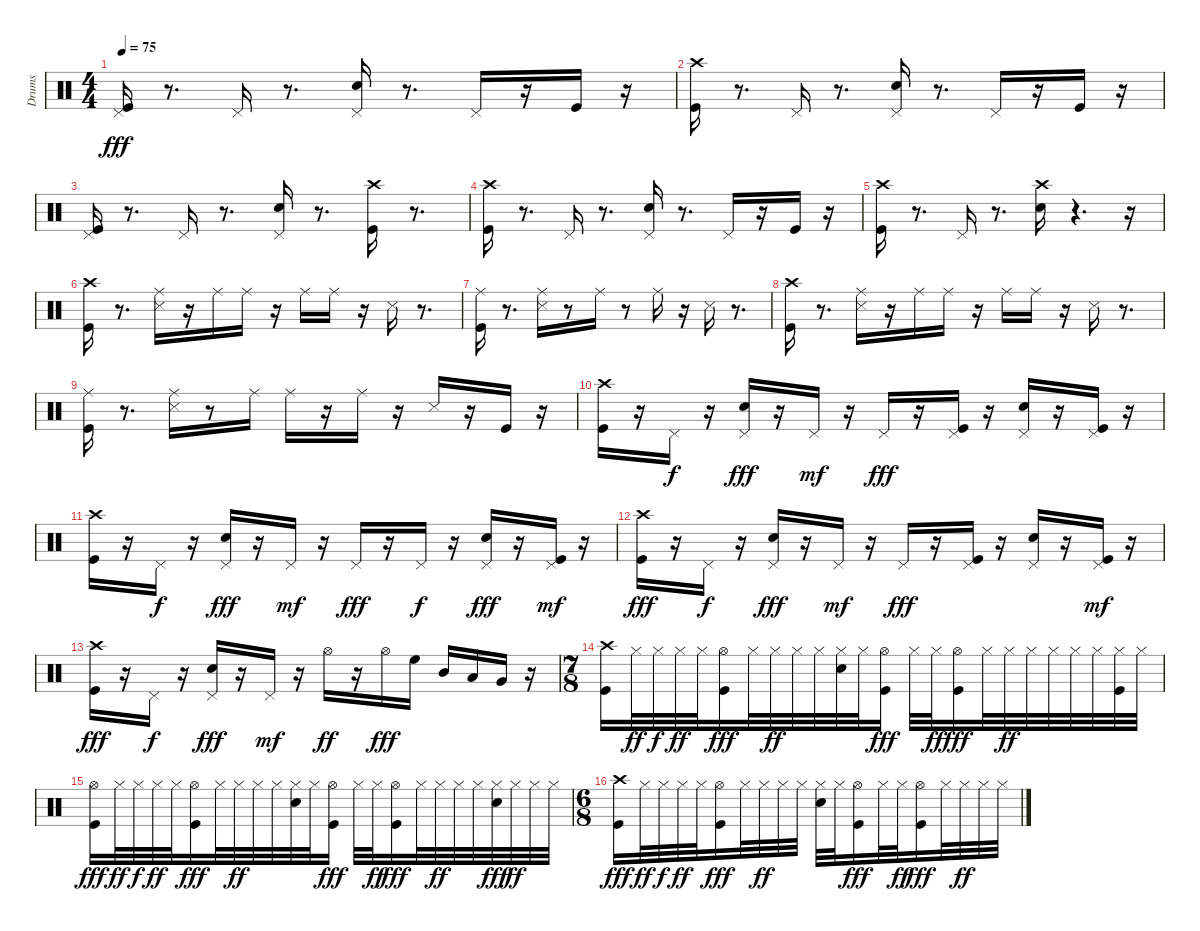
\track ("Drums" "Drums") {instrument percussion}
\staff {score}
\articulation defaults
\ts (4 4)
\tempo 75
\clef neutral
\ks c
("Kick (hit)" "Pedal Hi-Hat (hit)").16{dy fff} r.8{d} "Pedal Hi-Hat (hit)".16 r.8{d} ("Snare (hit) 2" "Pedal Hi-Hat (hit)").16 r.8{d} "Pedal Hi-Hat (hit)".16 r.16 "Kick (hit)".16 r.16 |
("Kick (hit)" "Crash high (hit)").16 r.8{d} "Pedal Hi-Hat (hit)".16 r.8{d} ("Pedal Hi-Hat (hit)" "Snare (hit) 2").16 r.8{d} "Pedal Hi-Hat (hit)".16 r.16 "Kick (hit)".16 r.16 |
("Kick (hit)" "Pedal Hi-Hat (hit)").16 r.8{d} "Pedal Hi-Hat (hit)".16 r.8{d} ("Snare (hit) 2" "Pedal Hi-Hat (hit)").16 r.8{d} ("Crash high (hit)" "Kick (hit)").16 r.8{d} |
("Crash high (hit)" "Kick (hit)").16 r.8{d} "Pedal Hi-Hat (hit)".16 r.8{d} ("Pedal Hi-Hat (hit)" "Snare (hit) 2").16 r.8{d} "Pedal Hi-Hat (hit)".16 r.16 "Kick (hit)".16 r.16 |
("Crash high (hit)" "Kick (hit)").16 r.8{d} "Pedal Hi-Hat (hit)".16 r.8{d} ("Crash high (hit)" "Snare (hit) 2").16 r.4{d} r.16 |
("Crash high (hit)" "Kick (hit)").16 r.8{d} ("Snare (side stick) 3" "Ride (middle)").16 r.16 "Ride (middle)".16 "Ride (middle)".16 r.16 "Ride (middle)".16 "Ride (middle)".16 r.16 "Snare (side stick) 3".16 r.8{d} |
("Ride (middle)" "Kick (hit)").16 r.8{d} ("Ride (middle)" "Snare (side stick) 3").16 r.8 "Ride (middle)".16 r.8 "Ride (middle)".16 r.16 "Snare (side stick) 3".16 r.8{d} |
("Kick (hit)" "Crash high (hit)").16 r.8{d} ("Ride (middle)" "Snare (side stick) 3").16 r.16 "Ride (middle)".16 "Ride (middle)".16 r.16 "Ride (middle)".16 "Ride (middle)".16 r.16 "Snare (side stick) 3".16 r.8{d} |
("Kick (hit)" "Ride (middle)").16 r.8{d} ("Snare (side stick) 3" "Ride (middle)").16 r.8 "Ride (middle)".16 "Ride (middle)".16 r.16 "Ride (middle)".16 r.16 "Snare (side stick) 3".16 r.16 "Kick (hit)".16 r.16 |
("Crash high (hit)" "Kick (hit)").16 r.16 "Pedal Hi-Hat (hit)".16{dy f} r.16 ("Pedal Hi-Hat (hit)" "Snare (hit) 2").16{dy fff} r.16 "Pedal Hi-Hat (hit)".16{dy mf} r.16 "Pedal Hi-Hat (hit)".16{dy fff} r.16 ("Pedal Hi-Hat (hit)" "Kick (hit)").16 r.16 ("Pedal Hi-Hat (hit)" "Snare (hit) 2").16 r.16 ("Pedal Hi-Hat (hit)" "Kick (hit)").16 r.16 |
("Crash high (hit)" "Kick (hit)").16 r.16 "Pedal Hi-Hat (hit)".16{dy f} r.16 ("Snare (hit) 2" "Pedal Hi-Hat (hit)").16{dy fff} r.16 "Pedal Hi-Hat (hit)".16{dy mf} r.16 "Pedal Hi-Hat (hit)".16{dy fff} r.16 "Pedal Hi-Hat (hit)".16{dy f} r.16 ("Snare (hit) 2" "Pedal Hi-Hat (hit)").16{dy fff} r.16 ("Kick (hit)" "Pedal Hi-Hat (hit)").16{dy mf} r.16 |
("Kick (hit)" "Crash high (hit)").16{dy fff} r.16 "Pedal Hi-Hat (hit)".16{dy f} r.16 ("Snare (hit) 2" "Pedal Hi-Hat (hit)").16{dy fff} r.16 "Pedal Hi-Hat (hit)".16{dy mf} r.16 "Pedal Hi-Hat (hit)".16{dy fff} r.16 ("Kick (hit)" "Pedal Hi-Hat (hit)").16 r.16 ("Snare (hit) 2" "Pedal Hi-Hat (hit)").16 r.16 ("Kick (hit)" "Pedal Hi-Hat (hit)").16{dy mf} r.16 |
("Kick (hit)" "Crash high (hit)").16{dy fff} r.16 "Pedal Hi-Hat (hit)".16{dy f} r.16 ("Pedal Hi-Hat (hit)" "Snare (hit) 2").16{dy fff} r.16 "Pedal Hi-Hat (hit)".16{dy mf} r.16 "Hi-Hat (open)".16{dy ff} r.16 "Hi-Hat (open)".16{dy fff} "High Floor Tom (hit)".16 "Mid Tom (hit)".16 "Low Tom (hit)".16 "Very Low Tom (hit)".16 r.16 |
\ts (7 8)
("Kick (hit)" "Crash high (hit)").16 "Hi-Hat (closed)".32{dy ff} "Hi-Hat (closed)".32{dy f} "Hi-Hat (closed)".32{dy ff} "Hi-Hat (closed)".32 ("Kick (hit)" "Hi-Hat (open)").16{dy fff} "Hi-Hat (closed)".32 "Hi-Hat (closed)".32{dy ff} "Hi-Hat (closed)".32 "Hi-Hat (closed)".32 ("Snare (hit) 2" "Hi-Hat (closed)").32 "Hi-Hat (closed)".32 ("Kick (hit)" "Hi-Hat (open)").16{dy fff} "Hi-Hat (closed)".32 "Hi-Hat (closed)".32{dy ff} ("Kick (hit)" "Hi-Hat (open)").16{dy fff} "Hi-Hat (closed)".32 "Hi-Hat (closed)".32{dy ff} "Hi-Hat (closed)".32 "Hi-Hat (closed)".32 "Hi-Hat (closed)".32 "Hi-Hat (closed)".32 ("Kick (hit)" "Hi-Hat (closed)").32 "Hi-Hat (closed)".32 |
("Kick (hit)" "Hi-Hat (open)").16{dy fff} "Hi-Hat (closed)".32{dy ff} "Hi-Hat (closed)".32{dy f} "Hi-Hat (closed)".32{dy ff} "Hi-Hat (closed)".32 ("Kick (hit)" "Hi-Hat (open)").16{dy fff} "Hi-Hat (closed)".32 "Hi-Hat (closed)".32{dy ff} "Hi-Hat (closed)".32 "Hi-Hat (closed)".32 ("Snare (hit) 2" "Hi-Hat (closed)").32 "Hi-Hat (closed)".32 ("Kick (hit)" "Hi-Hat (open)").16{dy fff} "Hi-Hat (closed)".32 "Hi-Hat (closed)".32{dy ff} ("Kick (hit)" "Hi-Hat (open)").16{dy fff} "Hi-Hat (closed)".32 "Hi-Hat (closed)".32{dy ff} "Hi-Hat (closed)".32 "Hi-Hat (closed)".32 ("Hi-Hat (closed)" "Snare (hit) 2").32{dy fff} "Hi-Hat (closed)".32{dy ff} "Hi-Hat (closed)".32 "Hi-Hat (closed)".32 |
\ts (6 8)
("Kick (hit)" "Crash high (hit)").16{dy fff} "Hi-Hat (closed)".32{dy ff} "Hi-Hat (closed)".32{dy f} "Hi-Hat (closed)".32{dy ff} "Hi-Hat (closed)".32 ("Kick (hit)" "Hi-Hat (open)").16{dy fff} "Hi-Hat (closed)".32 "Hi-Hat (closed)".32{dy ff} "Hi-Hat (closed)".32 "Hi-Hat (closed)".32 ("Snare (hit) 2" "Hi-Hat (closed)").32 "Hi-Hat (closed)".32 ("Kick (hit)" "Hi-Hat (open)").16{dy fff} "Hi-Hat (closed)".32 "Hi-Hat (closed)".32{dy ff} ("Kick (hit)" "Hi-Hat (open)").16{dy fff} "Hi-Hat (closed)".32 "Hi-Hat (closed)".32{dy ff} "Hi-Hat (closed)".32 "Hi-Hat (closed)".32
